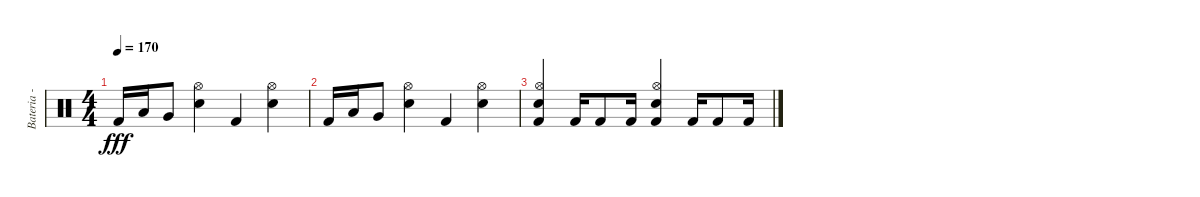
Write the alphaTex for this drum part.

\track ("Bateria - Larzon" "Bateria - ") {instrument percussion}
\staff {score}
\articulation defaults
\ts (4 4)
\tempo 170
\clef neutral
\ks c "Kick (hit) 2".16{dy fff} "Low Floor Tom (hit)".16 "Very Low Tom (hit)".8
("Hi-Hat (open)" "Snare (hit) 2").4 "Kick (hit) 2".4 ("Hi-Hat (open)" "Snare (hit) 2").4 |
"Kick (hit) 2".16 "Low Floor Tom (hit)".16 "Very Low Tom (hit)".8 ("Hi-Hat (open)" "Snare (hit) 2").4 "Kick (hit) 2".4 ("Hi-Hat (open)" "Snare (hit) 2").4 |
("Hi-Hat (open)" "Snare (hit) 2" "Kick (hit) 2").4 "Kick (hit) 2".16 "Kick (hit) 2".8 "Kick (hit) 2".16 ("Hi-Hat (open)" "Snare (hit) 2" "Kick (hit) 2").4 "Kick (hit) 2".16 "Kick (hit) 2".8 "Kick (hit) 2".16
